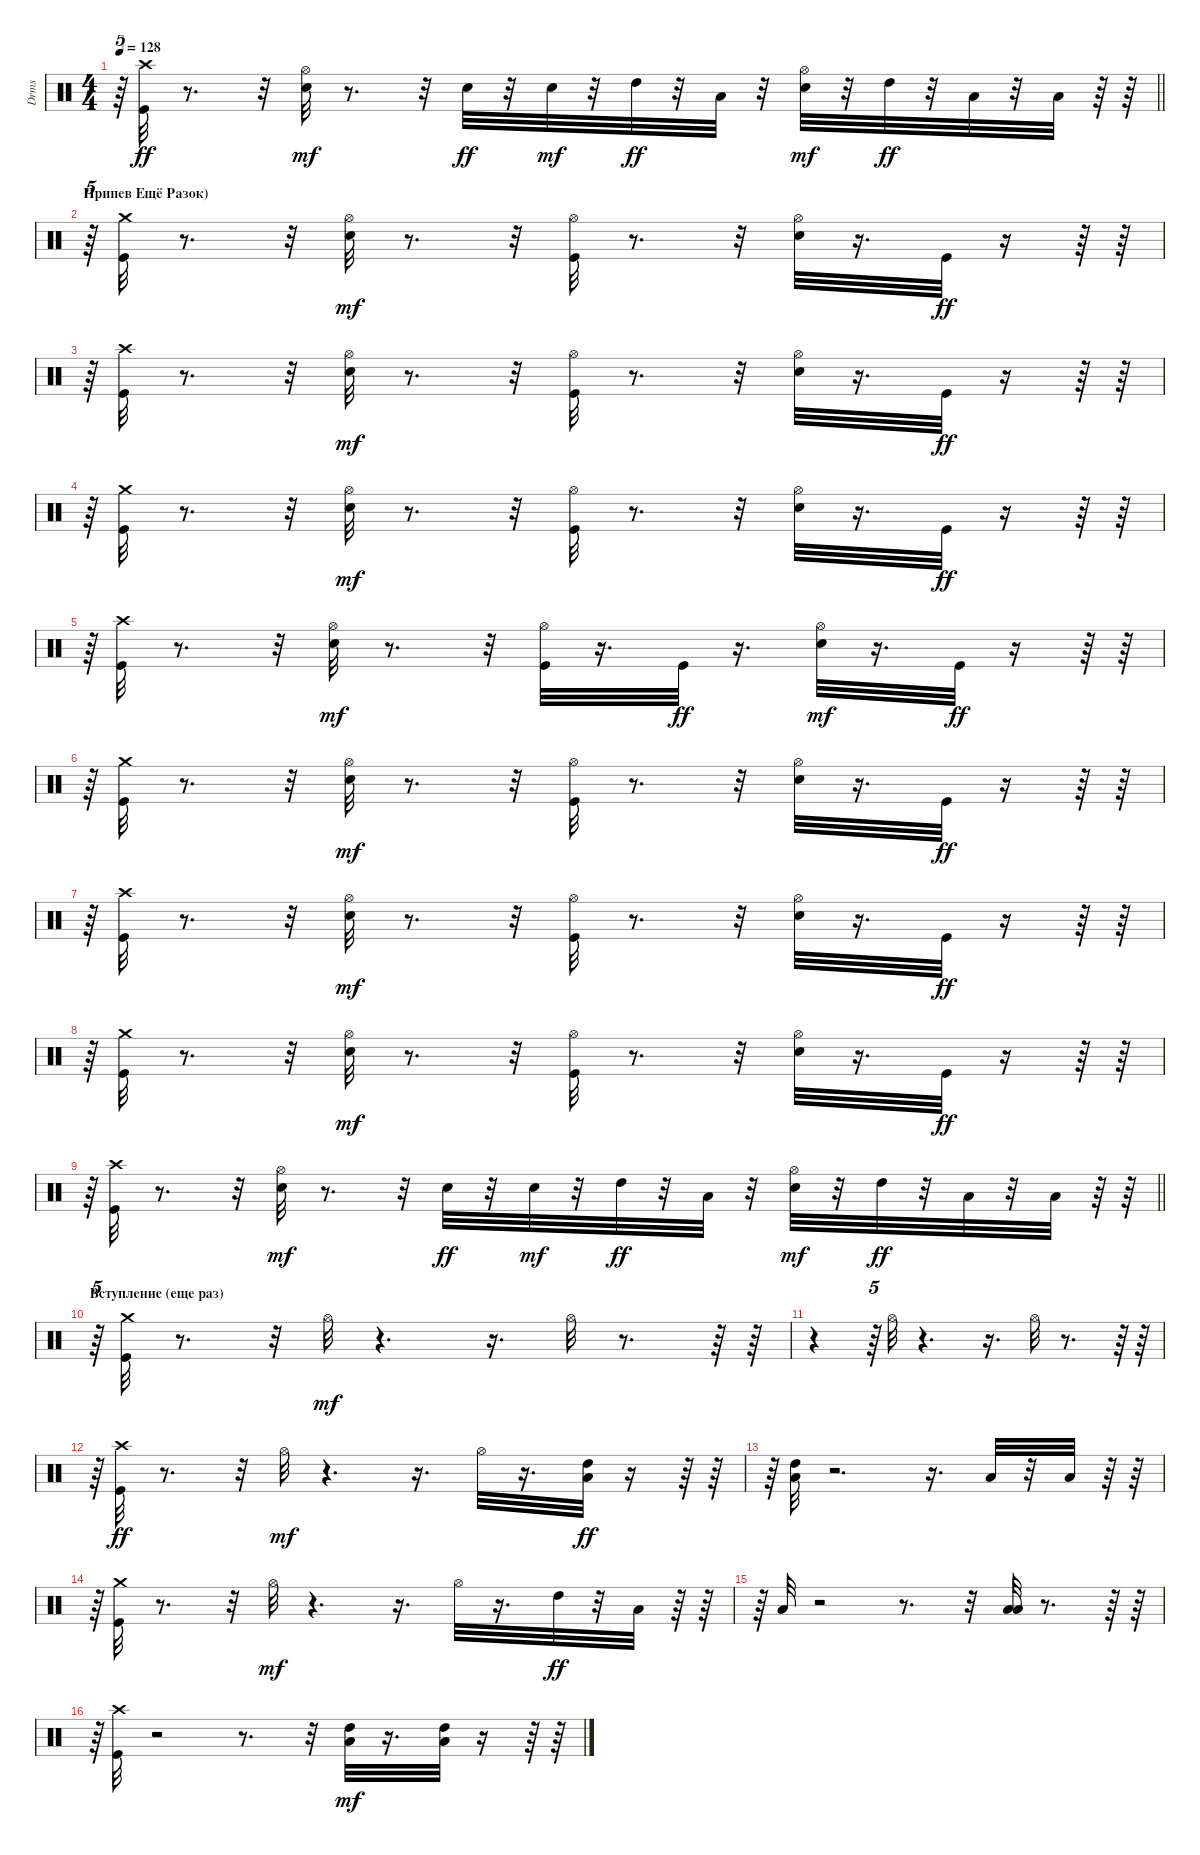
\track ("Drms" "Drms") {instrument percussion}
\staff {score}
\articulation defaults
\ts (4 4)
\tempo 128
\clef neutral
\barLineRight lightlight
\ks c
r.64{tu (5 4) dy ff} ("Kick (hit)" "Crash high (hit)").32 r.8{d} r.32 ("Snare (hit) 2" "Hi-Hat (open)").32{dy mf} r.8{d} r.32 "Snare (hit) 2".32{dy ff} r.32 "Snare (hit) 2".32{dy mf} r.32 "High Tom (hit)".32{dy ff} r.32 "Low Tom (hit)".32 r.32 ("Snare (hit) 2" "Hi-Hat (open)").32{dy mf} r.32 "High Tom (hit)".32{dy ff} r.32 "Low Tom (hit)".32 r.32 "Low Floor Tom (hit)".32 r.64 r.64 |
\section ("" "Припев Ещё Разок)")
r.64{tu (5 4)} ("Kick (hit)" "Crash medium (hit)").32 r.8{d} r.32 ("Snare (hit) 2" "Hi-Hat (open)").32{dy mf} r.8{d} r.32 ("Kick (hit)" "Hi-Hat (open)").32 r.8{d} r.32 ("Snare (hit) 2" "Hi-Hat (open)").32 r.16{d} "Kick (hit)".32{dy ff} r.16 r.64 r.64 |
r.64{tu (5 4)} ("Kick (hit)" "Crash high (hit)").32 r.8{d} r.32 ("Snare (hit) 2" "Hi-Hat (open)").32{dy mf} r.8{d} r.32 ("Kick (hit)" "Hi-Hat (open)").32 r.8{d} r.32 ("Snare (hit) 2" "Hi-Hat (open)").32 r.16{d} "Kick (hit)".32{dy ff} r.16 r.64 r.64 |
r.64{tu (5 4)} ("Kick (hit)" "Crash medium (hit)").32 r.8{d} r.32 ("Snare (hit) 2" "Hi-Hat (open)").32{dy mf} r.8{d} r.32 ("Kick (hit)" "Hi-Hat (open)").32 r.8{d} r.32 ("Snare (hit) 2" "Hi-Hat (open)").32 r.16{d} "Kick (hit)".32{dy ff} r.16 r.64 r.64 |
r.64{tu (5 4)} ("Kick (hit)" "Crash high (hit)").32 r.8{d} r.32 ("Snare (hit) 2" "Hi-Hat (open)").32{dy mf} r.8{d} r.32 ("Kick (hit)" "Hi-Hat (open)").32 r.16{d} "Kick (hit)".32{dy ff} r.16{d} ("Snare (hit) 2" "Hi-Hat (open)").32{dy mf} r.16{d} "Kick (hit)".32{dy ff} r.16 r.64 r.64 |
r.64{tu (5 4)} ("Kick (hit)" "Crash medium (hit)").32 r.8{d} r.32 ("Snare (hit) 2" "Hi-Hat (open)").32{dy mf} r.8{d} r.32 ("Kick (hit)" "Hi-Hat (open)").32 r.8{d} r.32 ("Snare (hit) 2" "Hi-Hat (open)").32 r.16{d} "Kick (hit)".32{dy ff} r.16 r.64 r.64 |
r.64{tu (5 4)} ("Kick (hit)" "Crash high (hit)").32 r.8{d} r.32 ("Snare (hit) 2" "Hi-Hat (open)").32{dy mf} r.8{d} r.32 ("Kick (hit)" "Hi-Hat (open)").32 r.8{d} r.32 ("Snare (hit) 2" "Hi-Hat (open)").32 r.16{d} "Kick (hit)".32{dy ff} r.16 r.64 r.64 |
r.64{tu (5 4)} ("Kick (hit)" "Crash medium (hit)").32 r.8{d} r.32 ("Snare (hit) 2" "Hi-Hat (open)").32{dy mf} r.8{d} r.32 ("Kick (hit)" "Hi-Hat (open)").32 r.8{d} r.32 ("Snare (hit) 2" "Hi-Hat (open)").32 r.16{d} "Kick (hit)".32{dy ff} r.16 r.64 r.64 |
\barLineRight lightlight
r.64{tu (5 4)} ("Kick (hit)" "Crash high (hit)").32 r.8{d} r.32 ("Snare (hit) 2" "Hi-Hat (open)").32{dy mf} r.8{d} r.32 "Snare (hit) 2".32{dy ff} r.32 "Snare (hit) 2".32{dy mf} r.32 "High Tom (hit)".32{dy ff} r.32 "Low Tom (hit)".32 r.32 ("Snare (hit) 2" "Hi-Hat (open)").32{dy mf} r.32 "High Tom (hit)".32{dy ff} r.32 "Low Tom (hit)".32 r.32 "Low Floor Tom (hit)".32 r.64 r.64 |
\section ("" "Вступление (еще раз)")
r.64{tu (5 4)} ("Kick (hit)" "Crash medium (hit)").32 r.8{d} r.32 "Hi-Hat (open)".32{dy mf} r.4{d} r.16{d} "Hi-Hat (open)".32 r.8{d} r.64 r.64 |
r.4 r.64{tu (5 4)} "Hi-Hat (open)".32 r.4{d} r.16{d} "Hi-Hat (open)".32 r.8{d} r.64 r.64 |
r.64{tu (5 4)} ("Crash high (hit)" "Kick (hit)").32{dy ff} r.8{d} r.32 "Hi-Hat (open)".32{dy mf} r.4{d} r.16{d} "Hi-Hat (open)".32 r.16{d} ("Low Tom (hit)" "High Tom (hit)").32{dy ff} r.16 r.64 r.64 |
r.64{tu (5 4)} ("Low Tom (hit)" "High Tom (hit)").32 r.2{d} r.16{d} "Low Tom (hit)".32 r.32 "Low Floor Tom (hit)".32 r.64 r.64 |
r.64{tu (5 4)} ("Kick (hit)" "Crash medium (hit)").32 r.8{d} r.32 "Hi-Hat (open)".32{dy mf} r.4{d} r.16{d} "Hi-Hat (open)".32 r.16{d} "High Tom (hit)".32{dy ff} r.32 "Low Tom (hit)".32 r.64 r.64 |
r.64{tu (5 4)} "Low Floor Tom (hit)".32 r.2 r.8{d} r.32 ("Low Floor Tom (hit)" "Low Tom (hit)").32 r.8{d} r.64 r.64 |
r.64{tu (5 4)} ("Crash high (hit)" "Kick (hit)").32 r.2 r.8{d} r.32 ("Low Tom (hit)" "High Tom (hit)").32{dy mf} r.16{d} ("Low Tom (hit)" "High Tom (hit)").32 r.16 r.64 r.64
